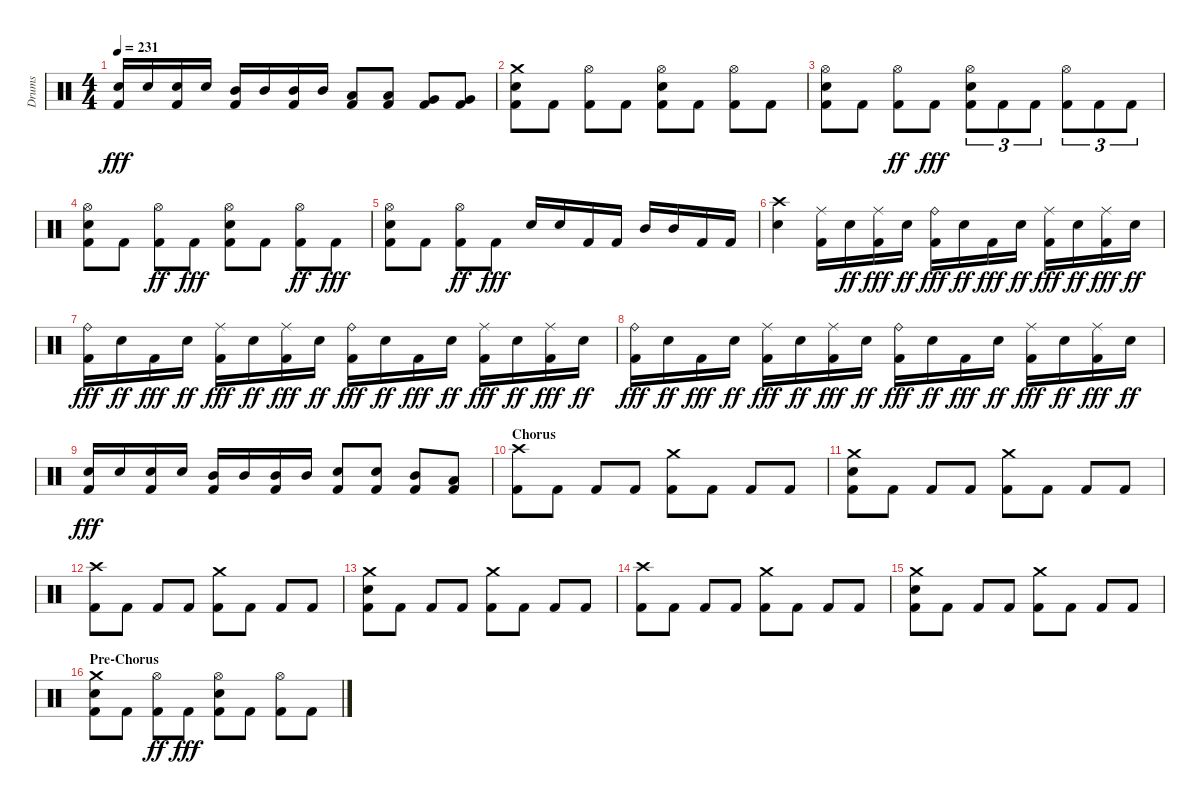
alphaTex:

\track ("Drums" "Drums") {instrument percussion}
\staff {score}
\articulation defaults
\ts (4 4)
\tempo 231
\clef neutral
\ks aminor
("Kick (hit) 2" "Snare (hit) 2").16{dy fff} "Snare (hit) 2".16 ("Kick (hit) 2" "Snare (hit) 2").16 "Snare (hit) 2".16 ("Kick (hit) 2" "Mid Tom (hit)").16 "Mid Tom (hit)".16 ("Mid Tom (hit)" "Kick (hit) 2").16 "Mid Tom (hit)".16 ("Low Tom (hit)" "Kick (hit) 2").8 ("Kick (hit) 2" "Low Tom (hit)").8 ("Kick (hit) 2" "Very Low Tom (hit)").8 ("Kick (hit) 2" "Very Low Tom (hit)").8 |
("Crash medium (hit)" "Kick (hit) 2" "Snare (hit) 2").8 "Kick (hit) 2".8 ("Kick (hit) 2" "Hi-Hat (open)").8 "Kick (hit) 2".8 ("Kick (hit) 2" "Snare (hit) 2" "Hi-Hat (open)").8 "Kick (hit) 2".8 ("Kick (hit) 2" "Hi-Hat (open)").8 "Kick (hit) 2".8 |
("Kick (hit) 2" "Snare (hit) 2" "Hi-Hat (open)").8 "Kick (hit) 2".8 ("Hi-Hat (open)" "Kick (hit) 2").8{dy ff} "Kick (hit) 2".8{dy fff} ("Kick (hit) 2" "Hi-Hat (open)" "Snare (hit) 2").8{tu (3 2)} "Kick (hit) 2".8{tu (3 2)} "Kick (hit) 2".8{tu (3 2)} ("Kick (hit) 2" "Hi-Hat (open)").8{tu (3 2)} "Kick (hit) 2".8{tu (3 2)} "Kick (hit) 2".8{tu (3 2)} |
("Hi-Hat (open)" "Kick (hit) 2" "Snare (hit) 2").8 "Kick (hit) 2".8 ("Hi-Hat (open)" "Kick (hit) 2").8{dy ff} "Kick (hit) 2".8{dy fff} ("Hi-Hat (open)" "Snare (hit) 2" "Kick (hit) 2").8 "Kick (hit) 2".8 ("Hi-Hat (open)" "Kick (hit) 2").8{dy ff} "Kick (hit) 2".8{dy fff} |
("Snare (hit) 2" "Kick (hit) 2" "Hi-Hat (open)").8 "Kick (hit) 2".8 ("Hi-Hat (open)" "Kick (hit) 2").8{dy ff} "Kick (hit) 2".8{dy fff} "Snare (hit) 2".16 "Snare (hit) 2".16 "Kick (hit) 2".16 "Kick (hit) 2".16 "Mid Tom (hit)".16 "Mid Tom (hit)".16 "Kick (hit) 2".16 "Kick (hit) 2".16 |
("Snare (hit) 2" "Crash high (hit)").4 ("Kick (hit) 2" "Ride (middle)").16 "Snare (hit) 2".16{dy ff} ("Ride (middle)" "Kick (hit) 2").16{dy fff} "Snare (hit) 2".16{dy ff} ("Kick (hit) 2" "Ride (bell)").16{dy fff} "Snare (hit) 2".16{dy ff} "Kick (hit) 2".16{dy fff} "Snare (hit) 2".16{dy ff} ("Ride (middle)" "Kick (hit) 2").16{dy fff} "Snare (hit) 2".16{dy ff} ("Ride (middle)" "Kick (hit) 2").16{dy fff} "Snare (hit) 2".16{dy ff} |
("Ride (bell)" "Kick (hit) 2").16{dy fff} "Snare (hit) 2".16{dy ff} "Kick (hit) 2".16{dy fff} "Snare (hit) 2".16{dy ff} ("Kick (hit) 2" "Ride (middle)").16{dy fff} "Snare (hit) 2".16{dy ff} ("Kick (hit) 2" "Ride (middle)").16{dy fff} "Snare (hit) 2".16{dy ff} ("Kick (hit) 2" "Ride (bell)").16{dy fff} "Snare (hit) 2".16{dy ff} "Kick (hit) 2".16{dy fff} "Snare (hit) 2".16{dy ff} ("Kick (hit) 2" "Ride (middle)").16{dy fff} "Snare (hit) 2".16{dy ff} ("Kick (hit) 2" "Ride (middle)").16{dy fff} "Snare (hit) 2".16{dy ff} |
("Kick (hit) 2" "Ride (bell)").16{dy fff} "Snare (hit) 2".16{dy ff} "Kick (hit) 2".16{dy fff} "Snare (hit) 2".16{dy ff} ("Ride (middle)" "Kick (hit) 2").16{dy fff} "Snare (hit) 2".16{dy ff} ("Kick (hit) 2" "Ride (middle)").16{dy fff} "Snare (hit) 2".16{dy ff} ("Kick (hit) 2" "Ride (bell)").16{dy fff} "Snare (hit) 2".16{dy ff} "Kick (hit) 2".16{dy fff} "Snare (hit) 2".16{dy ff} ("Kick (hit) 2" "Ride (middle)").16{dy fff} "Snare (hit) 2".16{dy ff} ("Kick (hit) 2" "Ride (middle)").16{dy fff} "Snare (hit) 2".16{dy ff} |
("Snare (hit) 2" "Kick (hit) 2").16{dy fff} "Snare (hit) 2".16 ("Snare (hit) 2" "Kick (hit) 2").16 "Snare (hit) 2".16 ("Kick (hit) 2" "Mid Tom (hit)").16 "Mid Tom (hit)".16 ("Kick (hit) 2" "Mid Tom (hit)").16 "Mid Tom (hit)".16 ("Kick (hit) 2" "Snare (hit) 2").8 ("Kick (hit) 2" "Snare (hit) 2").8 ("Kick (hit) 2" "Mid Tom (hit)").8 ("Kick (hit) 2" "Low Tom (hit)").8 |
\section ("" "Chorus")
("Crash high (hit)" "Kick (hit) 2").8 "Kick (hit) 2".8 "Kick (hit) 2".8 "Kick (hit) 2".8 ("Kick (hit) 2" "Crash medium (hit)").8 "Kick (hit) 2".8 "Kick (hit) 2".8 "Kick (hit) 2".8 |
("Crash medium (hit)" "Kick (hit) 2" "Snare (hit) 2").8 "Kick (hit) 2".8 "Kick (hit) 2".8 "Kick (hit) 2".8 ("Kick (hit) 2" "Crash medium (hit)").8 "Kick (hit) 2".8 "Kick (hit) 2".8 "Kick (hit) 2".8 |
("Kick (hit) 2" "Crash high (hit)").8 "Kick (hit) 2".8 "Kick (hit) 2".8 "Kick (hit) 2".8 ("Kick (hit) 2" "Crash medium (hit)").8 "Kick (hit) 2".8 "Kick (hit) 2".8 "Kick (hit) 2".8 |
("Kick (hit) 2" "Snare (hit) 2" "Crash medium (hit)").8 "Kick (hit) 2".8 "Kick (hit) 2".8 "Kick (hit) 2".8 ("Crash medium (hit)" "Kick (hit) 2").8 "Kick (hit) 2".8 "Kick (hit) 2".8 "Kick (hit) 2".8 |
("Crash high (hit)" "Kick (hit) 2").8 "Kick (hit) 2".8 "Kick (hit) 2".8 "Kick (hit) 2".8 ("Crash medium (hit)" "Kick (hit) 2").8 "Kick (hit) 2".8 "Kick (hit) 2".8 "Kick (hit) 2".8 |
("Kick (hit) 2" "Snare (hit) 2" "Crash medium (hit)").8 "Kick (hit) 2".8 "Kick (hit) 2".8 "Kick (hit) 2".8 ("Kick (hit) 2" "Crash medium (hit)").8 "Kick (hit) 2".8 "Kick (hit) 2".8 "Kick (hit) 2".8 |
\section ("" "Pre-Chorus")
("Kick (hit) 2" "Crash medium (hit)" "Snare (hit) 2").8 "Kick (hit) 2".8 ("Hi-Hat (open)" "Kick (hit) 2").8{dy ff} "Kick (hit) 2".8{dy fff} ("Kick (hit) 2" "Snare (hit) 2" "Hi-Hat (open)").8 "Kick (hit) 2".8 ("Kick (hit) 2" "Hi-Hat (open)").8 "Kick (hit) 2".8
